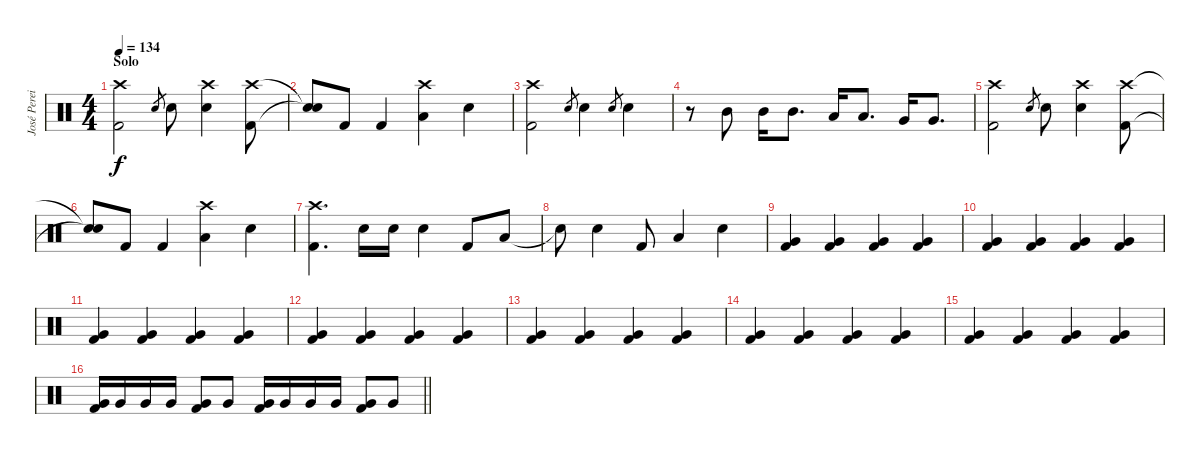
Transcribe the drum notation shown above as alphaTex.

\track ("José Pereira" "José Perei") {instrument percussion}
\staff {score}
\articulation defaults
\ts (4 4)
\section ("" "Solo")
\tempo 134
\clef neutral
\ks c
("Crash high (hit)" "Kick (hit) 2").2{dy f} "Snare (hit) 2".8{gr} "Snare (hit) 2".8 ("Crash high (hit)" "Snare (hit) 2").4 ("Crash high (hit)" "Kick (hit) 2").8 |
("Snare (hit)"{t} "Snare (hit)"{t}).8 "Kick (hit) 2".8 "Kick (hit) 2".4 ("Crash high (hit)" "Low Tom (hit)").4 "Snare (hit) 2".4 |
("Crash high (hit)" "Kick (hit) 2").2 "Snare (hit) 2".8{gr} "Snare (hit) 2".4 "Snare (hit) 2".8{gr} "Snare (hit) 2".4 |
r.8 "Mid Tom (hit)".8 "Mid Tom (hit)".16 "Mid Tom (hit)".8{d} "Low Tom (hit)".16 "Low Tom (hit)".8{d} "Very Low Tom (hit)".16 "Very Low Tom (hit)".8{d} |
("Crash high (hit)" "Kick (hit) 2").2 "Snare (hit) 2".8{gr} "Snare (hit) 2".8 ("Crash high (hit)" "Snare (hit) 2").4 ("Crash high (hit)" "Kick (hit) 2").8 |
("Snare (hit)"{t} "Snare (hit)"{t}).8 "Kick (hit) 2".8 "Kick (hit) 2".4 ("Crash high (hit)" "Low Tom (hit)").4 "Snare (hit) 2".4 |
("Crash high (hit)" "Kick (hit) 2").4{d} "Snare (hit) 2".16 "Snare (hit) 2".16 "Snare (hit) 2".4 "Kick (hit) 2".8 "Low Tom (hit)".8 |
"Snare (hit)"{t}.8 "Snare (hit) 2".4 "Kick (hit) 2".8 "Low Tom (hit)".4 "Snare (hit) 2".4 |
("Very Low Tom (hit)" "Kick (hit) 2").4 ("Very Low Tom (hit)" "Kick (hit) 2").4 ("Very Low Tom (hit)" "Kick (hit) 2").4 ("Very Low Tom (hit)" "Kick (hit) 2").4 |
("Very Low Tom (hit)" "Kick (hit) 2").4 ("Very Low Tom (hit)" "Kick (hit) 2").4 ("Very Low Tom (hit)" "Kick (hit) 2").4 ("Very Low Tom (hit)" "Kick (hit) 2").4 |
("Very Low Tom (hit)" "Kick (hit) 2").4 ("Very Low Tom (hit)" "Kick (hit) 2").4 ("Very Low Tom (hit)" "Kick (hit) 2").4 ("Very Low Tom (hit)" "Kick (hit) 2").4 |
("Very Low Tom (hit)" "Kick (hit) 2").4 ("Very Low Tom (hit)" "Kick (hit) 2").4 ("Very Low Tom (hit)" "Kick (hit) 2").4 ("Very Low Tom (hit)" "Kick (hit) 2").4 |
("Very Low Tom (hit)" "Kick (hit) 2").4 ("Very Low Tom (hit)" "Kick (hit) 2").4 ("Very Low Tom (hit)" "Kick (hit) 2").4 ("Very Low Tom (hit)" "Kick (hit) 2").4 |
("Very Low Tom (hit)" "Kick (hit) 2").4 ("Very Low Tom (hit)" "Kick (hit) 2").4 ("Very Low Tom (hit)" "Kick (hit) 2").4 ("Very Low Tom (hit)" "Kick (hit) 2").4 |
("Very Low Tom (hit)" "Kick (hit) 2").4 ("Very Low Tom (hit)" "Kick (hit) 2").4 ("Very Low Tom (hit)" "Kick (hit) 2").4 ("Very Low Tom (hit)" "Kick (hit) 2").4 |
\barLineRight lightlight
("Very Low Tom (hit)" "Kick (hit) 2").16 "Very Low Tom (hit)".16 "Very Low Tom (hit)".16 "Very Low Tom (hit)".16 ("Very Low Tom (hit)" "Kick (hit) 2").8 "Very Low Tom (hit)".8 ("Very Low Tom (hit)" "Kick (hit) 2").16 "Very Low Tom (hit)".16 "Very Low Tom (hit)".16 "Very Low Tom (hit)".16 ("Very Low Tom (hit)" "Kick (hit) 2").8 "Very Low Tom (hit)".8
